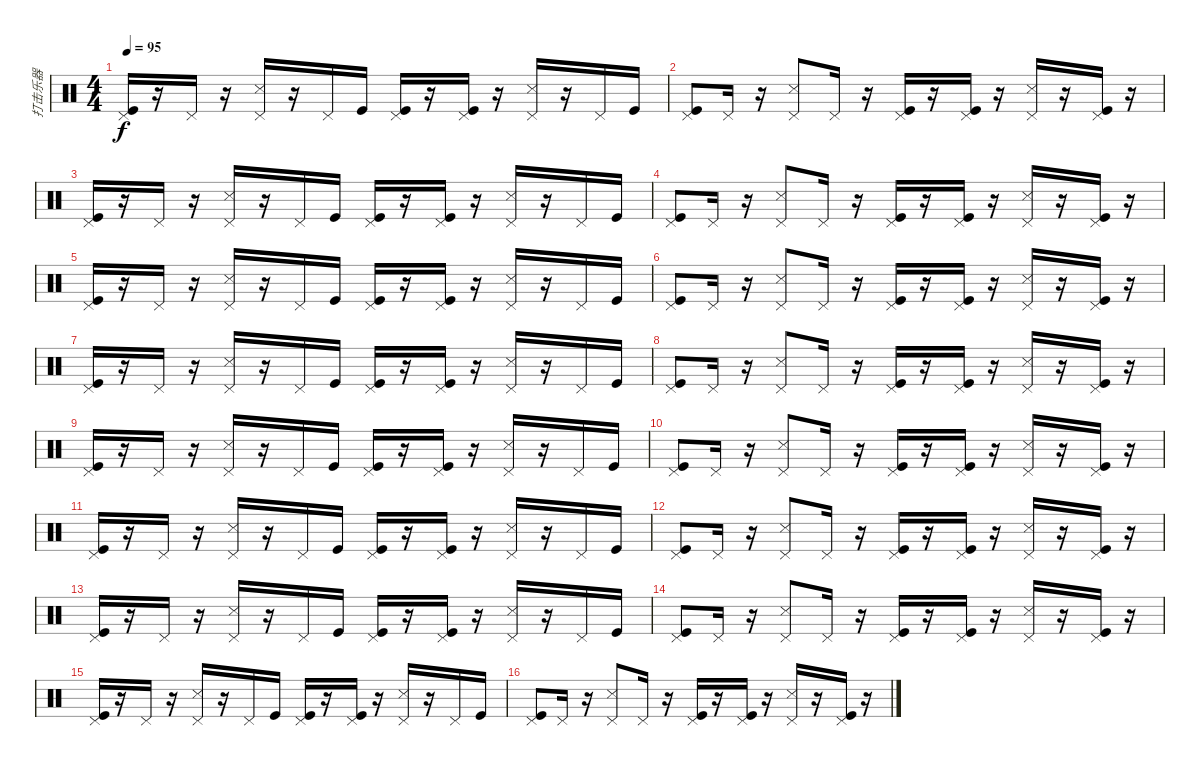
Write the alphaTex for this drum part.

\track ("打击乐器" "打击乐器") {instrument percussion}
\staff {score}
\articulation defaults
\ts (4 4)
\tempo 95
\clef neutral
\ks c
("Pedal Hi-Hat (hit)" "Kick (hit)").16{dy f} r.16 "Pedal Hi-Hat (hit)".16 r.16 ("Pedal Hi-Hat (hit)" "Snare (side stick) 3").16 r.16 "Pedal Hi-Hat (hit)".16 "Kick (hit)".16 ("Pedal Hi-Hat (hit)" "Kick (hit)").16 r.16 ("Pedal Hi-Hat (hit)" "Kick (hit)").16 r.16 ("Pedal Hi-Hat (hit)" "Snare (side stick) 3").16 r.16 "Pedal Hi-Hat (hit)".16 "Kick (hit)".16 |
("Pedal Hi-Hat (hit)" "Kick (hit)").8 "Pedal Hi-Hat (hit)".16 r.16 ("Pedal Hi-Hat (hit)" "Snare (side stick) 3").8 "Pedal Hi-Hat (hit)".16 r.16 ("Kick (hit)" "Pedal Hi-Hat (hit)").16 r.16 ("Kick (hit)" "Pedal Hi-Hat (hit)").16 r.16 ("Snare (side stick) 3" "Pedal Hi-Hat (hit)").16 r.16 ("Kick (hit)" "Pedal Hi-Hat (hit)").16 r.16 |
("Pedal Hi-Hat (hit)" "Kick (hit)").16 r.16 "Pedal Hi-Hat (hit)".16 r.16 ("Pedal Hi-Hat (hit)" "Snare (side stick) 3").16 r.16 "Pedal Hi-Hat (hit)".16 "Kick (hit)".16 ("Pedal Hi-Hat (hit)" "Kick (hit)").16 r.16 ("Pedal Hi-Hat (hit)" "Kick (hit)").16 r.16 ("Pedal Hi-Hat (hit)" "Snare (side stick) 3").16 r.16 "Pedal Hi-Hat (hit)".16 "Kick (hit)".16 |
("Pedal Hi-Hat (hit)" "Kick (hit)").8 "Pedal Hi-Hat (hit)".16 r.16 ("Pedal Hi-Hat (hit)" "Snare (side stick) 3").8 "Pedal Hi-Hat (hit)".16 r.16 ("Kick (hit)" "Pedal Hi-Hat (hit)").16 r.16 ("Kick (hit)" "Pedal Hi-Hat (hit)").16 r.16 ("Snare (side stick) 3" "Pedal Hi-Hat (hit)").16 r.16 ("Kick (hit)" "Pedal Hi-Hat (hit)").16 r.16 |
("Pedal Hi-Hat (hit)" "Kick (hit)").16 r.16 "Pedal Hi-Hat (hit)".16 r.16 ("Pedal Hi-Hat (hit)" "Snare (side stick) 3").16 r.16 "Pedal Hi-Hat (hit)".16 "Kick (hit)".16 ("Pedal Hi-Hat (hit)" "Kick (hit)").16 r.16 ("Pedal Hi-Hat (hit)" "Kick (hit)").16 r.16 ("Pedal Hi-Hat (hit)" "Snare (side stick) 3").16 r.16 "Pedal Hi-Hat (hit)".16 "Kick (hit)".16 |
("Pedal Hi-Hat (hit)" "Kick (hit)").8 "Pedal Hi-Hat (hit)".16 r.16 ("Pedal Hi-Hat (hit)" "Snare (side stick) 3").8 "Pedal Hi-Hat (hit)".16 r.16 ("Kick (hit)" "Pedal Hi-Hat (hit)").16 r.16 ("Kick (hit)" "Pedal Hi-Hat (hit)").16 r.16 ("Snare (side stick) 3" "Pedal Hi-Hat (hit)").16 r.16 ("Kick (hit)" "Pedal Hi-Hat (hit)").16 r.16 |
("Pedal Hi-Hat (hit)" "Kick (hit)").16 r.16 "Pedal Hi-Hat (hit)".16 r.16 ("Pedal Hi-Hat (hit)" "Snare (side stick) 3").16 r.16 "Pedal Hi-Hat (hit)".16 "Kick (hit)".16 ("Pedal Hi-Hat (hit)" "Kick (hit)").16 r.16 ("Pedal Hi-Hat (hit)" "Kick (hit)").16 r.16 ("Pedal Hi-Hat (hit)" "Snare (side stick) 3").16 r.16 "Pedal Hi-Hat (hit)".16 "Kick (hit)".16 |
("Pedal Hi-Hat (hit)" "Kick (hit)").8 "Pedal Hi-Hat (hit)".16 r.16 ("Pedal Hi-Hat (hit)" "Snare (side stick) 3").8 "Pedal Hi-Hat (hit)".16 r.16 ("Kick (hit)" "Pedal Hi-Hat (hit)").16 r.16 ("Kick (hit)" "Pedal Hi-Hat (hit)").16 r.16 ("Snare (side stick) 3" "Pedal Hi-Hat (hit)").16 r.16 ("Kick (hit)" "Pedal Hi-Hat (hit)").16 r.16 |
("Pedal Hi-Hat (hit)" "Kick (hit)").16 r.16 "Pedal Hi-Hat (hit)".16 r.16 ("Pedal Hi-Hat (hit)" "Snare (side stick) 3").16 r.16 "Pedal Hi-Hat (hit)".16 "Kick (hit)".16 ("Pedal Hi-Hat (hit)" "Kick (hit)").16 r.16 ("Pedal Hi-Hat (hit)" "Kick (hit)").16 r.16 ("Pedal Hi-Hat (hit)" "Snare (side stick) 3").16 r.16 "Pedal Hi-Hat (hit)".16 "Kick (hit)".16 |
("Pedal Hi-Hat (hit)" "Kick (hit)").8 "Pedal Hi-Hat (hit)".16 r.16 ("Pedal Hi-Hat (hit)" "Snare (side stick) 3").8 "Pedal Hi-Hat (hit)".16 r.16 ("Kick (hit)" "Pedal Hi-Hat (hit)").16 r.16 ("Kick (hit)" "Pedal Hi-Hat (hit)").16 r.16 ("Snare (side stick) 3" "Pedal Hi-Hat (hit)").16 r.16 ("Kick (hit)" "Pedal Hi-Hat (hit)").16 r.16 |
("Pedal Hi-Hat (hit)" "Kick (hit)").16 r.16 "Pedal Hi-Hat (hit)".16 r.16 ("Pedal Hi-Hat (hit)" "Snare (side stick) 3").16 r.16 "Pedal Hi-Hat (hit)".16 "Kick (hit)".16 ("Pedal Hi-Hat (hit)" "Kick (hit)").16 r.16 ("Pedal Hi-Hat (hit)" "Kick (hit)").16 r.16 ("Pedal Hi-Hat (hit)" "Snare (side stick) 3").16 r.16 "Pedal Hi-Hat (hit)".16 "Kick (hit)".16 |
("Pedal Hi-Hat (hit)" "Kick (hit)").8 "Pedal Hi-Hat (hit)".16 r.16 ("Pedal Hi-Hat (hit)" "Snare (side stick) 3").8 "Pedal Hi-Hat (hit)".16 r.16 ("Kick (hit)" "Pedal Hi-Hat (hit)").16 r.16 ("Kick (hit)" "Pedal Hi-Hat (hit)").16 r.16 ("Snare (side stick) 3" "Pedal Hi-Hat (hit)").16 r.16 ("Kick (hit)" "Pedal Hi-Hat (hit)").16 r.16 |
("Pedal Hi-Hat (hit)" "Kick (hit)").16 r.16 "Pedal Hi-Hat (hit)".16 r.16 ("Pedal Hi-Hat (hit)" "Snare (side stick) 3").16 r.16 "Pedal Hi-Hat (hit)".16 "Kick (hit)".16 ("Pedal Hi-Hat (hit)" "Kick (hit)").16 r.16 ("Pedal Hi-Hat (hit)" "Kick (hit)").16 r.16 ("Pedal Hi-Hat (hit)" "Snare (side stick) 3").16 r.16 "Pedal Hi-Hat (hit)".16 "Kick (hit)".16 |
("Pedal Hi-Hat (hit)" "Kick (hit)").8 "Pedal Hi-Hat (hit)".16 r.16 ("Pedal Hi-Hat (hit)" "Snare (side stick) 3").8 "Pedal Hi-Hat (hit)".16 r.16 ("Kick (hit)" "Pedal Hi-Hat (hit)").16 r.16 ("Kick (hit)" "Pedal Hi-Hat (hit)").16 r.16 ("Snare (side stick) 3" "Pedal Hi-Hat (hit)").16 r.16 ("Kick (hit)" "Pedal Hi-Hat (hit)").16 r.16 |
("Pedal Hi-Hat (hit)" "Kick (hit)").16 r.16 "Pedal Hi-Hat (hit)".16 r.16 ("Pedal Hi-Hat (hit)" "Snare (side stick) 3").16 r.16 "Pedal Hi-Hat (hit)".16 "Kick (hit)".16 ("Pedal Hi-Hat (hit)" "Kick (hit)").16 r.16 ("Pedal Hi-Hat (hit)" "Kick (hit)").16 r.16 ("Pedal Hi-Hat (hit)" "Snare (side stick) 3").16 r.16 "Pedal Hi-Hat (hit)".16 "Kick (hit)".16 |
("Pedal Hi-Hat (hit)" "Kick (hit)").8 "Pedal Hi-Hat (hit)".16 r.16 ("Pedal Hi-Hat (hit)" "Snare (side stick) 3").8 "Pedal Hi-Hat (hit)".16 r.16 ("Kick (hit)" "Pedal Hi-Hat (hit)").16 r.16 ("Kick (hit)" "Pedal Hi-Hat (hit)").16 r.16 ("Snare (side stick) 3" "Pedal Hi-Hat (hit)").16 r.16 ("Kick (hit)" "Pedal Hi-Hat (hit)").16 r.16
